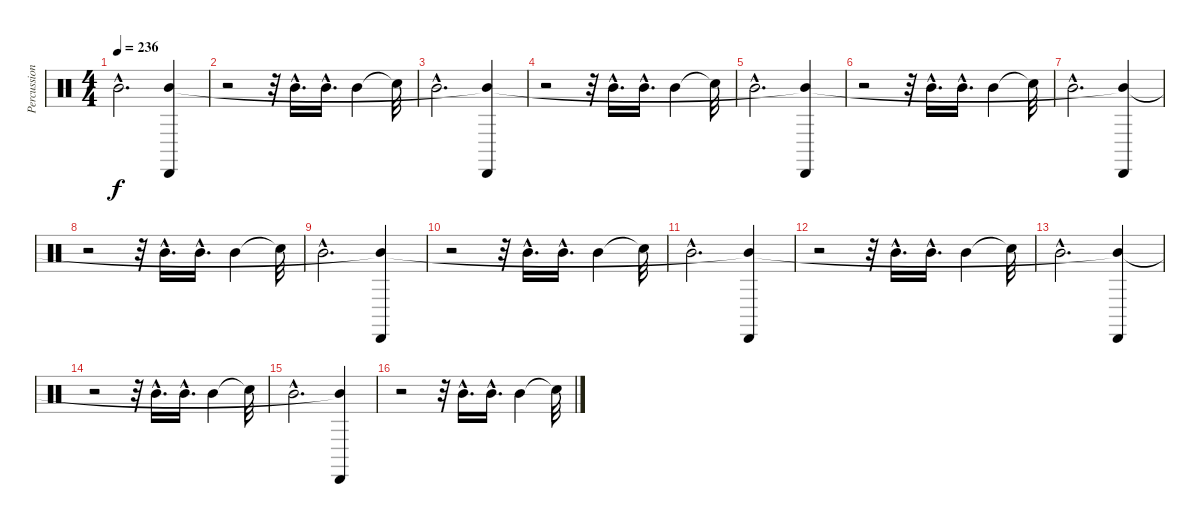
\track ("Percussions" "Percussion") {instrument percussion}
\staff {score}
\articulation defaults
\ts (4 4)
\tempo 236
\clef neutral
\ks c "Mid Tom (hit)"{hac}.2{d dy f}
("Cabasa (hit)" "Mid Tom (hit)").4 |
r.2 r.32 "Mid Tom (hit)"{hac}.16{d} "Mid Tom (hit)"{hac}.16{d} "Mid Tom (hit)".4 "Snare (hit)"{t}.32 |
"Mid Tom (hit)"{hac}.2{d} ("Cabasa (hit)" "Mid Tom (hit)"{t}).4 |
r.2 r.32 "Mid Tom (hit)"{hac}.16{d} "Mid Tom (hit)"{hac}.16{d} "Mid Tom (hit)".4 "Snare (hit)"{t}.32 |
"Mid Tom (hit)"{hac}.2{d} ("Cabasa (hit)" "Mid Tom (hit)"{t}).4 |
r.2 r.32 "Mid Tom (hit)"{hac}.16{d} "Mid Tom (hit)"{hac}.16{d} "Mid Tom (hit)".4 "Snare (hit)"{t}.32 |
"Mid Tom (hit)"{hac}.2{d} ("Cabasa (hit)" "Mid Tom (hit)"{t}).4 |
r.2 r.32 "Mid Tom (hit)"{hac}.16{d} "Mid Tom (hit)"{hac}.16{d} "Mid Tom (hit)".4 "Snare (hit)"{t}.32 |
"Mid Tom (hit)"{hac}.2{d} ("Cabasa (hit)" "Mid Tom (hit)"{t}).4 |
r.2 r.32 "Mid Tom (hit)"{hac}.16{d} "Mid Tom (hit)"{hac}.16{d} "Mid Tom (hit)".4 "Snare (hit)"{t}.32 |
"Mid Tom (hit)"{hac}.2{d} ("Cabasa (hit)" "Mid Tom (hit)"{t}).4 |
r.2 r.32 "Mid Tom (hit)"{hac}.16{d} "Mid Tom (hit)"{hac}.16{d} "Mid Tom (hit)".4 "Snare (hit)"{t}.32 |
"Mid Tom (hit)"{hac}.2{d} ("Cabasa (hit)" "Mid Tom (hit)"{t}).4 |
r.2 r.32 "Mid Tom (hit)"{hac}.16{d} "Mid Tom (hit)"{hac}.16{d} "Mid Tom (hit)".4 "Snare (hit)"{t}.32 |
"Mid Tom (hit)"{hac}.2{d} ("Cabasa (hit)" "Mid Tom (hit)"{t}).4 |
r.2 r.32 "Mid Tom (hit)"{hac}.16{d} "Mid Tom (hit)"{hac}.16{d} "Mid Tom (hit)".4 "Snare (hit)"{t}.32
